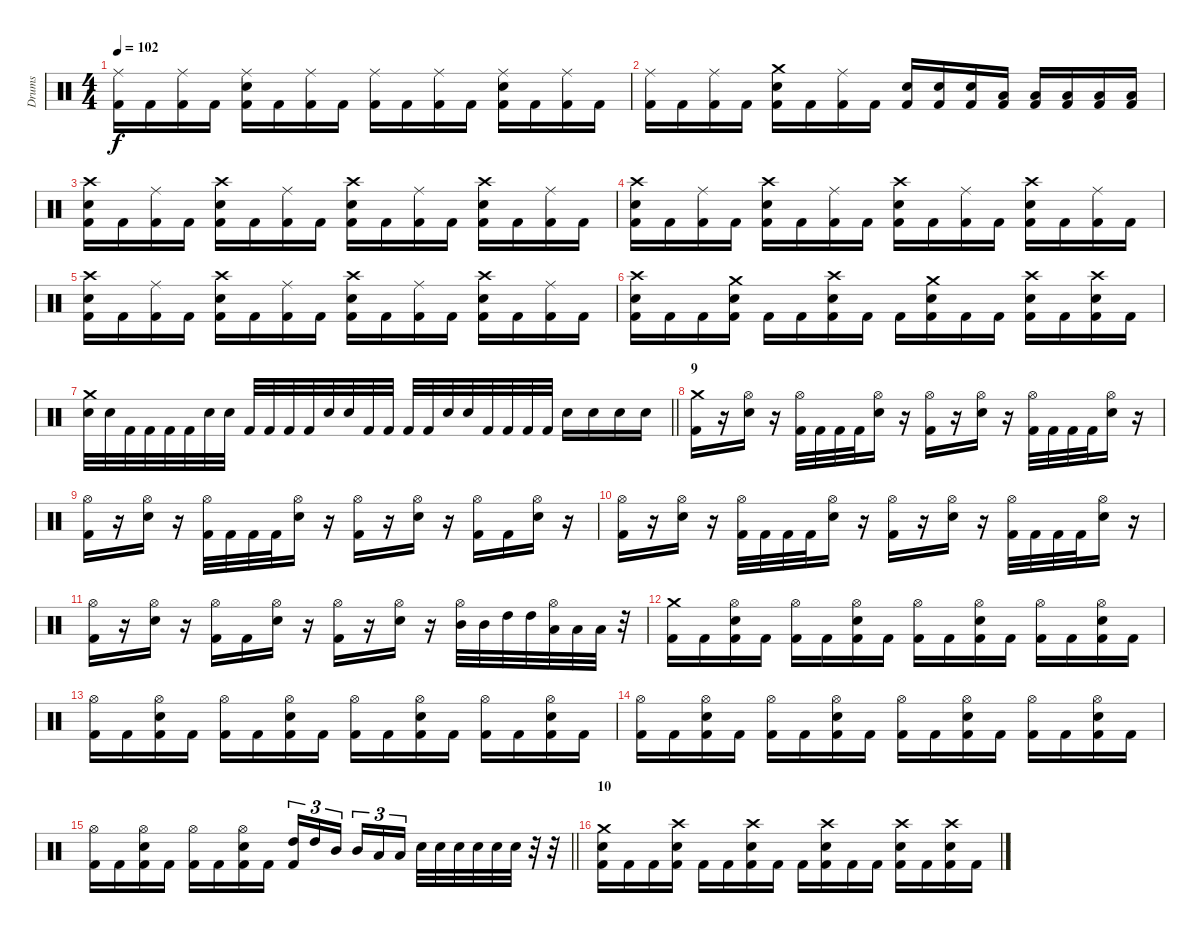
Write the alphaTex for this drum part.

\track ("Drums" "Drums") {instrument percussion}
\staff {score}
\articulation defaults
\ts (4 4)
\tempo 102
\clef neutral
\ks c
("Ride (middle)" "Kick (hit) 2").16{dy f} "Kick (hit) 2".16 ("Ride (middle)" "Kick (hit) 2").16 "Kick (hit) 2".16 ("Ride (middle)" "Snare (hit) 2" "Kick (hit) 2").16 "Kick (hit) 2".16 ("Ride (middle)" "Kick (hit) 2").16 "Kick (hit) 2".16 ("Ride (middle)" "Kick (hit) 2").16 "Kick (hit) 2".16 ("Ride (middle)" "Kick (hit) 2").16 "Kick (hit) 2".16 ("Ride (middle)" "Snare (hit) 2" "Kick (hit) 2").16 "Kick (hit) 2".16 ("Ride (middle)" "Kick (hit) 2").16 "Kick (hit) 2".16 |
("Ride (middle)" "Kick (hit) 2").16 "Kick (hit) 2".16 ("Ride (middle)" "Kick (hit) 2").16 "Kick (hit) 2".16 ("Crash medium (hit)" "Snare (hit) 2" "Kick (hit) 2").16 "Kick (hit) 2".16 ("Ride (middle)" "Kick (hit) 2").16 "Kick (hit) 2".16 ("Snare (hit) 2" "Kick (hit) 2").16 ("Snare (hit) 2" "Kick (hit) 2").16 ("Snare (hit) 2" "Kick (hit) 2").16 ("Low Floor Tom (hit)" "Kick (hit) 2").16 ("Low Floor Tom (hit)" "Kick (hit) 2").16 ("Low Floor Tom (hit)" "Kick (hit) 2").16 ("Low Tom (hit)" "Kick (hit) 2").16 ("Low Tom (hit)" "Kick (hit) 2").16 |
("Crash high (hit)" "Snare (hit) 2" "Kick (hit) 2").16 "Kick (hit) 2".16 ("Ride (middle)" "Kick (hit) 2").16 "Kick (hit) 2".16 ("Crash high (hit)" "Snare (hit) 2" "Kick (hit) 2").16 "Kick (hit) 2".16 ("Ride (middle)" "Kick (hit) 2").16 "Kick (hit) 2".16 ("Crash high (hit)" "Snare (hit) 2" "Kick (hit) 2").16 "Kick (hit) 2".16 ("Ride (middle)" "Kick (hit) 2").16 "Kick (hit) 2".16 ("Crash high (hit)" "Snare (hit) 2" "Kick (hit) 2").16 "Kick (hit) 2".16 ("Ride (middle)" "Kick (hit) 2").16 "Kick (hit) 2".16 |
("Crash high (hit)" "Snare (hit) 2" "Kick (hit) 2").16 "Kick (hit) 2".16 ("Ride (middle)" "Kick (hit) 2").16 "Kick (hit) 2".16 ("Crash high (hit)" "Snare (hit) 2" "Kick (hit) 2").16 "Kick (hit) 2".16 ("Ride (middle)" "Kick (hit) 2").16 "Kick (hit) 2".16 ("Crash high (hit)" "Snare (hit) 2" "Kick (hit) 2").16 "Kick (hit) 2".16 ("Ride (middle)" "Kick (hit) 2").16 "Kick (hit) 2".16 ("Crash high (hit)" "Snare (hit) 2" "Kick (hit) 2").16 "Kick (hit) 2".16 ("Ride (middle)" "Kick (hit) 2").16 "Kick (hit) 2".16 |
("Crash high (hit)" "Snare (hit) 2" "Kick (hit) 2").16 "Kick (hit) 2".16 ("Ride (middle)" "Kick (hit) 2").16 "Kick (hit) 2".16 ("Crash high (hit)" "Snare (hit) 2" "Kick (hit) 2").16 "Kick (hit) 2".16 ("Ride (middle)" "Kick (hit) 2").16 "Kick (hit) 2".16 ("Crash high (hit)" "Snare (hit) 2" "Kick (hit) 2").16 "Kick (hit) 2".16 ("Ride (middle)" "Kick (hit) 2").16 "Kick (hit) 2".16 ("Crash high (hit)" "Snare (hit) 2" "Kick (hit) 2").16 "Kick (hit) 2".16 ("Ride (middle)" "Kick (hit) 2").16 "Kick (hit) 2".16 |
("Crash high (hit)" "Snare (hit) 2" "Kick (hit) 2").16 "Kick (hit) 2".16 "Kick (hit) 2".16 ("Crash medium (hit)" "Snare (hit) 2" "Kick (hit) 2").16 "Kick (hit) 2".16 "Kick (hit) 2".16 ("Crash high (hit)" "Snare (hit) 2" "Kick (hit) 2").16 "Kick (hit) 2".16 "Kick (hit) 2".16 ("Crash medium (hit)" "Snare (hit) 2" "Kick (hit) 2").16 "Kick (hit) 2".16 "Kick (hit) 2".16 ("Crash high (hit)" "Snare (hit) 2" "Kick (hit) 2").16 "Kick (hit) 2".16 ("Crash high (hit)" "Snare (hit) 2" "Kick (hit) 2").16 "Kick (hit) 2".16 |
\barLineRight lightlight
("Crash medium (hit)" "Snare (hit) 2").32 "Snare (hit) 2".32 "Kick (hit) 2".32 "Kick (hit) 2".32 "Kick (hit) 2".32 "Kick (hit) 2".32 "Snare (hit) 2".32 "Snare (hit) 2".32 "Kick (hit) 2".32 "Kick (hit) 2".32 "Kick (hit) 2".32 "Kick (hit) 2".32 "Snare (hit) 2".32 "Snare (hit) 2".32 "Kick (hit) 2".32 "Kick (hit) 2".32 "Kick (hit) 2".32 "Kick (hit) 2".32 "Snare (hit) 2".32 "Snare (hit) 2".32 "Kick (hit) 2".32 "Kick (hit) 2".32 "Kick (hit) 2".32 "Kick (hit) 2".32 "Snare (hit) 2".16 "Snare (hit) 2".16 "Snare (hit) 2".16 "Snare (hit) 2".16 |
\section ("" "9")
("Crash medium (hit)" "Kick (hit) 2").16 r.16 ("Hi-Hat (open)" "Snare (hit) 2").16 r.16 ("Hi-Hat (open)" "Kick (hit) 2").32 "Kick (hit) 2".32 "Kick (hit) 2".32 "Kick (hit) 2".32 ("Hi-Hat (open)" "Snare (hit) 2").16 r.16 ("Hi-Hat (open)" "Kick (hit) 2").16 r.16 ("Hi-Hat (open)" "Snare (hit) 2").16 r.16 ("Hi-Hat (open)" "Kick (hit) 2").32 "Kick (hit) 2".32 "Kick (hit) 2".32 "Kick (hit) 2".32 ("Hi-Hat (open)" "Snare (hit) 2").16 r.16 |
("Hi-Hat (open)" "Kick (hit) 2").16 r.16 ("Hi-Hat (open)" "Snare (hit) 2").16 r.16 ("Hi-Hat (open)" "Kick (hit) 2").32 "Kick (hit) 2".32 "Kick (hit) 2".32 "Kick (hit) 2".32 ("Hi-Hat (open)" "Snare (hit) 2").16 r.16 ("Hi-Hat (open)" "Kick (hit) 2").16 r.16 ("Hi-Hat (open)" "Snare (hit) 2").16 r.16 ("Hi-Hat (open)" "Kick (hit) 2").16 "Kick (hit) 2".16 ("Hi-Hat (open)" "Snare (hit) 2").16 r.16 |
("Hi-Hat (open)" "Kick (hit) 2").16 r.16 ("Hi-Hat (open)" "Snare (hit) 2").16 r.16 ("Hi-Hat (open)" "Kick (hit) 2").32 "Kick (hit) 2".32 "Kick (hit) 2".32 "Kick (hit) 2".32 ("Hi-Hat (open)" "Snare (hit) 2").16 r.16 ("Hi-Hat (open)" "Kick (hit) 2").16 r.16 ("Hi-Hat (open)" "Snare (hit) 2").16 r.16 ("Hi-Hat (open)" "Kick (hit) 2").32 "Kick (hit) 2".32 "Kick (hit) 2".32 "Kick (hit) 2".32 ("Hi-Hat (open)" "Snare (hit) 2").16 r.16 |
("Hi-Hat (open)" "Kick (hit) 2").16 r.16 ("Hi-Hat (open)" "Snare (hit) 2").16 r.16 ("Hi-Hat (open)" "Kick (hit) 2").16 "Kick (hit) 2".16 ("Hi-Hat (open)" "Snare (hit) 2").16 r.16 ("Hi-Hat (open)" "Kick (hit) 2").16 r.16 ("Hi-Hat (open)" "Snare (hit) 2").16 r.16 ("Hi-Hat (open)" "Mid Tom (hit)").32 "Mid Tom (hit)".32 "High Tom (hit)".32 "High Tom (hit)".32 ("Hi-Hat (open)" "Low Tom (hit)").32 "Low Tom (hit)".32 "Low Tom (hit)".32 r.32 |
("Crash medium (hit)" "Kick (hit) 2").16 "Kick (hit) 2".16 ("Hi-Hat (open)" "Snare (hit) 2" "Kick (hit) 2").16 "Kick (hit) 2".16 ("Hi-Hat (open)" "Kick (hit) 2").16 "Kick (hit) 2".16 ("Hi-Hat (open)" "Snare (hit) 2" "Kick (hit) 2").16 "Kick (hit) 2".16 ("Hi-Hat (open)" "Kick (hit) 2").16 "Kick (hit) 2".16 ("Hi-Hat (open)" "Snare (hit) 2" "Kick (hit) 2").16 "Kick (hit) 2".16 ("Hi-Hat (open)" "Kick (hit) 2").16 "Kick (hit) 2".16 ("Hi-Hat (open)" "Snare (hit) 2" "Kick (hit) 2").16 "Kick (hit) 2".16 |
("Hi-Hat (open)" "Kick (hit) 2").16 "Kick (hit) 2".16 ("Hi-Hat (open)" "Snare (hit) 2" "Kick (hit) 2").16 "Kick (hit) 2".16 ("Hi-Hat (open)" "Kick (hit) 2").16 "Kick (hit) 2".16 ("Hi-Hat (open)" "Snare (hit) 2" "Kick (hit) 2").16 "Kick (hit) 2".16 ("Hi-Hat (open)" "Kick (hit) 2").16 "Kick (hit) 2".16 ("Hi-Hat (open)" "Snare (hit) 2" "Kick (hit) 2").16 "Kick (hit) 2".16 ("Hi-Hat (open)" "Kick (hit) 2").16 "Kick (hit) 2".16 ("Hi-Hat (open)" "Snare (hit) 2" "Kick (hit) 2").16 "Kick (hit) 2".16 |
("Hi-Hat (open)" "Kick (hit) 2").16 "Kick (hit) 2".16 ("Hi-Hat (open)" "Snare (hit) 2" "Kick (hit) 2").16 "Kick (hit) 2".16 ("Hi-Hat (open)" "Kick (hit) 2").16 "Kick (hit) 2".16 ("Hi-Hat (open)" "Snare (hit) 2" "Kick (hit) 2").16 "Kick (hit) 2".16 ("Hi-Hat (open)" "Kick (hit) 2").16 "Kick (hit) 2".16 ("Hi-Hat (open)" "Snare (hit) 2" "Kick (hit) 2").16 "Kick (hit) 2".16 ("Hi-Hat (open)" "Kick (hit) 2").16 "Kick (hit) 2".16 ("Hi-Hat (open)" "Snare (hit) 2" "Kick (hit) 2").16 "Kick (hit) 2".16 |
\barLineRight lightlight
("Hi-Hat (open)" "Kick (hit) 2").16 "Kick (hit) 2".16 ("Hi-Hat (open)" "Snare (hit) 2" "Kick (hit) 2").16 "Kick (hit) 2".16 ("Hi-Hat (open)" "Kick (hit) 2").16 "Kick (hit) 2".16 ("Hi-Hat (open)" "Snare (hit) 2" "Kick (hit) 2").16 "Kick (hit) 2".16 ("High Tom (hit)" "Kick (hit) 2").16{tu (3 2)} "High Tom (hit)".16{tu (3 2)} "Mid Tom (hit)".16{tu (3 2) beam splitsecondary} "Mid Tom (hit)".16{tu (3 2)} "Low Tom (hit)".16{tu (3 2)} "Low Tom (hit)".16{tu (3 2)} "Snare (hit) 2".32 "Snare (hit) 2".32 "Snare (hit) 2".32 "Snare (hit) 2".32 "Snare (hit) 2".32 "Snare (hit) 2".32 r.32 r.32 |
\section ("" "10")
("Crash medium (hit)" "Snare (hit) 2" "Kick (hit) 2").16 "Kick (hit) 2".16 "Kick (hit) 2".16 ("Crash high (hit)" "Snare (hit) 2" "Kick (hit) 2").16 "Kick (hit) 2".16 "Kick (hit) 2".16 ("Crash high (hit)" "Snare (hit) 2" "Kick (hit) 2").16 "Kick (hit) 2".16 "Kick (hit) 2".16 ("Crash high (hit)" "Snare (hit) 2" "Kick (hit) 2").16 "Kick (hit) 2".16 "Kick (hit) 2".16 ("Crash high (hit)" "Snare (hit) 2" "Kick (hit) 2").16 "Kick (hit) 2".16 ("Crash high (hit)" "Snare (hit) 2" "Kick (hit) 2").16 "Kick (hit) 2".16
